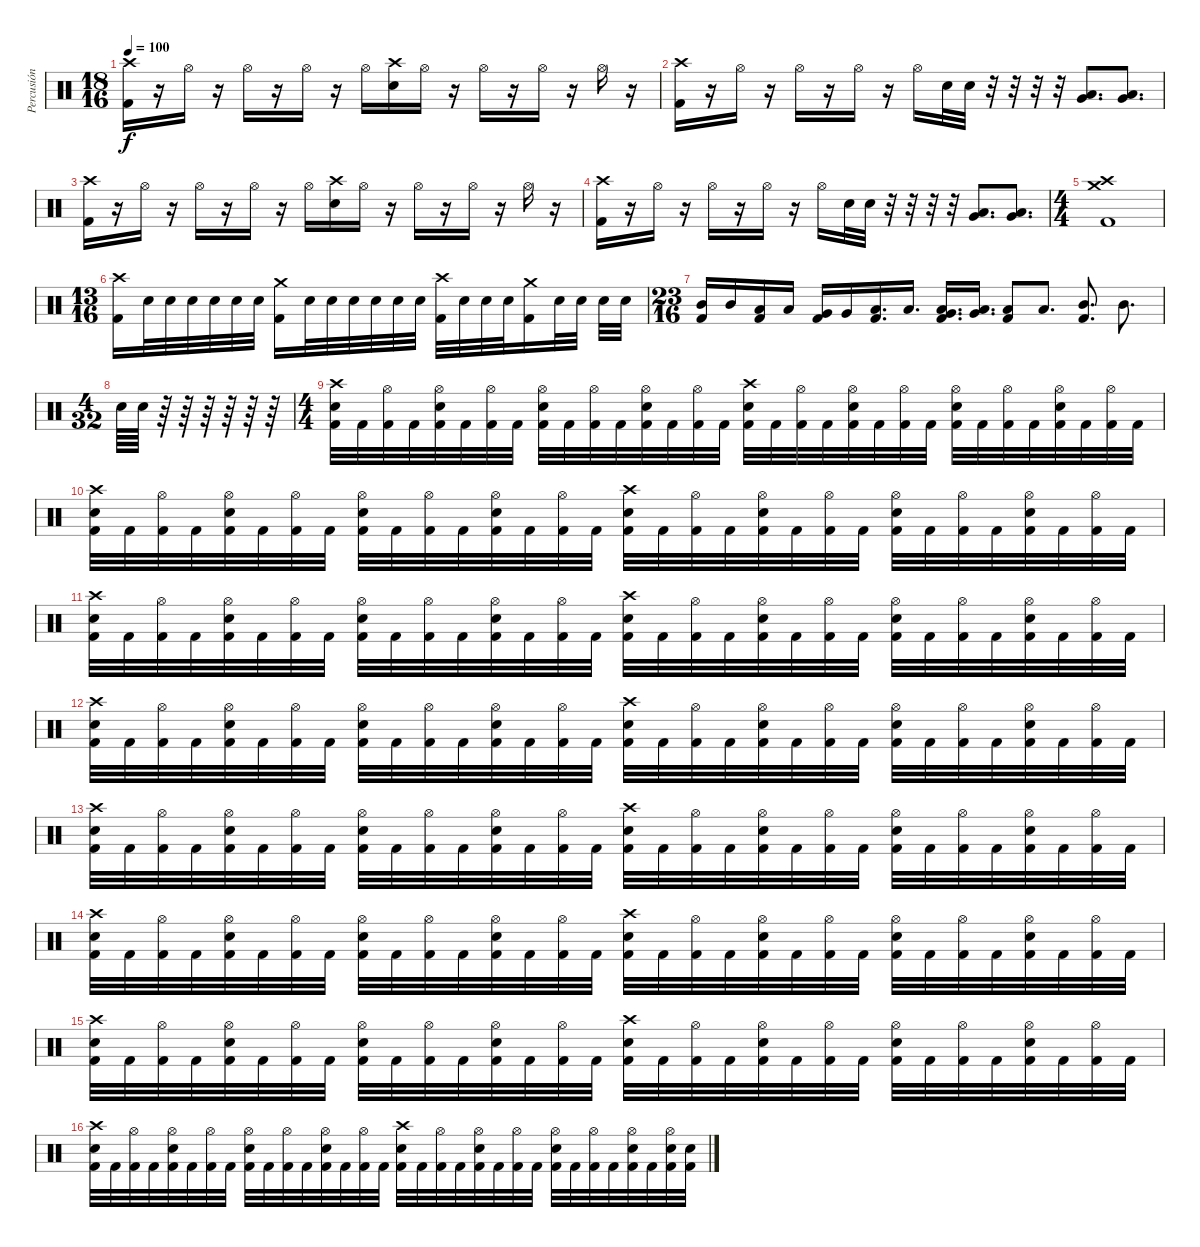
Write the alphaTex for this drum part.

\track ("Percusión" "Percusión") {instrument percussion}
\staff {score}
\articulation defaults
\ts (18 16)
\tempo 100
\clef neutral
\ks c
("Crash high (hit)" "Kick (hit) 2").16{dy f} r.16 "Hi-Hat (open)".16 r.16 "Hi-Hat (open)".16 r.16 "Hi-Hat (open)".16 r.16 "Hi-Hat (open)".16 ("Crash high (hit)" "Electric Snare (hit)").16 "Hi-Hat (open)".16 r.16 "Hi-Hat (open)".16 r.16 "Hi-Hat (open)".16 r.16 "Hi-Hat (open)".16 r.16 |
("Crash high (hit)" "Kick (hit) 2").16 r.16 "Hi-Hat (open)".16 r.16 "Hi-Hat (open)".16 r.16 "Hi-Hat (open)".16 r.16 "Hi-Hat (open)".16 "Electric Snare (hit)".32 "Electric Snare (hit)".32 r.32 r.32 r.32 r.32 ("Low Floor Tom (hit)" "Very Low Tom (hit)").8{d} ("Very Low Tom (hit)" "Low Floor Tom (hit)").8{d} |
("Crash high (hit)" "Kick (hit) 2").16 r.16 "Hi-Hat (open)".16 r.16 "Hi-Hat (open)".16 r.16 "Hi-Hat (open)".16 r.16 "Hi-Hat (open)".16 ("Crash high (hit)" "Electric Snare (hit)").16 "Hi-Hat (open)".16 r.16 "Hi-Hat (open)".16 r.16 "Hi-Hat (open)".16 r.16 "Hi-Hat (open)".16 r.16 |
("Crash high (hit)" "Kick (hit) 2").16 r.16 "Hi-Hat (open)".16 r.16 "Hi-Hat (open)".16 r.16 "Hi-Hat (open)".16 r.16 "Hi-Hat (open)".16 "Electric Snare (hit)".32 "Electric Snare (hit)".32 r.32 r.32 r.32 r.32 ("Low Floor Tom (hit)" "Very Low Tom (hit)").8{d} ("Very Low Tom (hit)" "Low Floor Tom (hit)").8{d} |
\ts (4 4)
("Crash medium (hit)" "Crash high (hit)" "Kick (hit) 2").1 |
\ts (13 16)
("Crash high (hit)" "Kick (hit) 2").16 "Electric Snare (hit)".32 "Electric Snare (hit)".32 "Electric Snare (hit)".32 "Electric Snare (hit)".32 "Electric Snare (hit)".32 "Electric Snare (hit)".32 ("Crash medium (hit)" "Kick (hit) 2").16 "Electric Snare (hit)".32 "Electric Snare (hit)".32 "Electric Snare (hit)".32 "Electric Snare (hit)".32 "Electric Snare (hit)".32 "Electric Snare (hit)".32 ("Crash high (hit)" "Kick (hit) 2").32 "Electric Snare (hit)".32 "Electric Snare (hit)".32 "Electric Snare (hit)".32 ("Crash medium (hit)" "Kick (hit) 2").16 "Electric Snare (hit)".32 "Electric Snare (hit)".32 "Electric Snare (hit)".32 "Electric Snare (hit)".32 |
\ts (23 16)
("Mid Tom (hit)" "Kick (hit) 2").16 "Mid Tom (hit)".16 ("Low Tom (hit)" "Kick (hit) 2").16 "Low Tom (hit)".16 ("Very Low Tom (hit)" "Kick (hit) 2").16 "Very Low Tom (hit)".16 ("Low Floor Tom (hit)" "Kick (hit) 2").16{d} "Low Floor Tom (hit)".16{d} ("Low Floor Tom (hit)" "Very Low Tom (hit)" "Kick (hit) 2").16{d} ("Low Floor Tom (hit)" "Very Low Tom (hit)").16{d} ("Low Tom (hit)" "Kick (hit) 2").8 "Low Tom (hit)".8{d} ("Mid Tom (hit)" "Kick (hit) 2").8{d} "Mid Tom (hit)".8{d} |
\ts (4 32)
"Electric Snare (hit)".64 "Electric Snare (hit)".64 r.64 r.64 r.64 r.64 r.64 r.64 |
\ts (4 4)
("Crash high (hit)" "Electric Snare (hit)" "Kick (hit) 2").32 "Kick (hit) 2".32 ("Hi-Hat (open)" "Kick (hit) 2").32 "Kick (hit) 2".32 ("Hi-Hat (open)" "Electric Snare (hit)" "Kick (hit) 2").32 "Kick (hit) 2".32 ("Hi-Hat (open)" "Kick (hit) 2").32 "Kick (hit) 2".32 ("Hi-Hat (open)" "Electric Snare (hit)" "Kick (hit) 2").32 "Kick (hit) 2".32 ("Hi-Hat (open)" "Kick (hit) 2").32 "Kick (hit) 2".32 ("Hi-Hat (open)" "Electric Snare (hit)" "Kick (hit) 2").32 "Kick (hit) 2".32 ("Hi-Hat (open)" "Kick (hit) 2").32 "Kick (hit) 2".32 ("Crash high (hit)" "Electric Snare (hit)" "Kick (hit) 2").32 "Kick (hit) 2".32 ("Hi-Hat (open)" "Kick (hit) 2").32 "Kick (hit) 2".32 ("Hi-Hat (open)" "Electric Snare (hit)" "Kick (hit) 2").32 "Kick (hit) 2".32 ("Hi-Hat (open)" "Kick (hit) 2").32 "Kick (hit) 2".32 ("Hi-Hat (open)" "Electric Snare (hit)" "Kick (hit) 2").32 "Kick (hit) 2".32 ("Hi-Hat (open)" "Kick (hit) 2").32 "Kick (hit) 2".32 ("Hi-Hat (open)" "Electric Snare (hit)" "Kick (hit) 2").32 "Kick (hit) 2".32 ("Hi-Hat (open)" "Kick (hit) 2").32 "Kick (hit) 2".32 |
("Crash high (hit)" "Electric Snare (hit)" "Kick (hit) 2").32 "Kick (hit) 2".32 ("Hi-Hat (open)" "Kick (hit) 2").32 "Kick (hit) 2".32 ("Hi-Hat (open)" "Electric Snare (hit)" "Kick (hit) 2").32 "Kick (hit) 2".32 ("Hi-Hat (open)" "Kick (hit) 2").32 "Kick (hit) 2".32 ("Hi-Hat (open)" "Electric Snare (hit)" "Kick (hit) 2").32 "Kick (hit) 2".32 ("Hi-Hat (open)" "Kick (hit) 2").32 "Kick (hit) 2".32 ("Hi-Hat (open)" "Electric Snare (hit)" "Kick (hit) 2").32 "Kick (hit) 2".32 ("Hi-Hat (open)" "Kick (hit) 2").32 "Kick (hit) 2".32 ("Crash high (hit)" "Electric Snare (hit)" "Kick (hit) 2").32 "Kick (hit) 2".32 ("Hi-Hat (open)" "Kick (hit) 2").32 "Kick (hit) 2".32 ("Hi-Hat (open)" "Electric Snare (hit)" "Kick (hit) 2").32 "Kick (hit) 2".32 ("Hi-Hat (open)" "Kick (hit) 2").32 "Kick (hit) 2".32 ("Hi-Hat (open)" "Electric Snare (hit)" "Kick (hit) 2").32 "Kick (hit) 2".32 ("Hi-Hat (open)" "Kick (hit) 2").32 "Kick (hit) 2".32 ("Hi-Hat (open)" "Electric Snare (hit)" "Kick (hit) 2").32 "Kick (hit) 2".32 ("Hi-Hat (open)" "Kick (hit) 2").32 "Kick (hit) 2".32 |
("Crash high (hit)" "Electric Snare (hit)" "Kick (hit) 2").32 "Kick (hit) 2".32 ("Hi-Hat (open)" "Kick (hit) 2").32 "Kick (hit) 2".32 ("Hi-Hat (open)" "Electric Snare (hit)" "Kick (hit) 2").32 "Kick (hit) 2".32 ("Hi-Hat (open)" "Kick (hit) 2").32 "Kick (hit) 2".32 ("Hi-Hat (open)" "Electric Snare (hit)" "Kick (hit) 2").32 "Kick (hit) 2".32 ("Hi-Hat (open)" "Kick (hit) 2").32 "Kick (hit) 2".32 ("Hi-Hat (open)" "Electric Snare (hit)" "Kick (hit) 2").32 "Kick (hit) 2".32 ("Hi-Hat (open)" "Kick (hit) 2").32 "Kick (hit) 2".32 ("Crash high (hit)" "Electric Snare (hit)" "Kick (hit) 2").32 "Kick (hit) 2".32 ("Hi-Hat (open)" "Kick (hit) 2").32 "Kick (hit) 2".32 ("Hi-Hat (open)" "Electric Snare (hit)" "Kick (hit) 2").32 "Kick (hit) 2".32 ("Hi-Hat (open)" "Kick (hit) 2").32 "Kick (hit) 2".32 ("Hi-Hat (open)" "Electric Snare (hit)" "Kick (hit) 2").32 "Kick (hit) 2".32 ("Hi-Hat (open)" "Kick (hit) 2").32 "Kick (hit) 2".32 ("Hi-Hat (open)" "Electric Snare (hit)" "Kick (hit) 2").32 "Kick (hit) 2".32 ("Hi-Hat (open)" "Kick (hit) 2").32 "Kick (hit) 2".32 |
("Crash high (hit)" "Electric Snare (hit)" "Kick (hit) 2").32 "Kick (hit) 2".32 ("Hi-Hat (open)" "Kick (hit) 2").32 "Kick (hit) 2".32 ("Hi-Hat (open)" "Electric Snare (hit)" "Kick (hit) 2").32 "Kick (hit) 2".32 ("Hi-Hat (open)" "Kick (hit) 2").32 "Kick (hit) 2".32 ("Hi-Hat (open)" "Electric Snare (hit)" "Kick (hit) 2").32 "Kick (hit) 2".32 ("Hi-Hat (open)" "Kick (hit) 2").32 "Kick (hit) 2".32 ("Hi-Hat (open)" "Electric Snare (hit)" "Kick (hit) 2").32 "Kick (hit) 2".32 ("Hi-Hat (open)" "Kick (hit) 2").32 "Kick (hit) 2".32 ("Crash high (hit)" "Electric Snare (hit)" "Kick (hit) 2").32 "Kick (hit) 2".32 ("Hi-Hat (open)" "Kick (hit) 2").32 "Kick (hit) 2".32 ("Hi-Hat (open)" "Electric Snare (hit)" "Kick (hit) 2").32 "Kick (hit) 2".32 ("Hi-Hat (open)" "Kick (hit) 2").32 "Kick (hit) 2".32 ("Hi-Hat (open)" "Electric Snare (hit)" "Kick (hit) 2").32 "Kick (hit) 2".32 ("Hi-Hat (open)" "Kick (hit) 2").32 "Kick (hit) 2".32 ("Hi-Hat (open)" "Electric Snare (hit)" "Kick (hit) 2").32 "Kick (hit) 2".32 ("Hi-Hat (open)" "Kick (hit) 2").32 "Kick (hit) 2".32 |
("Crash high (hit)" "Electric Snare (hit)" "Kick (hit) 2").32 "Kick (hit) 2".32 ("Hi-Hat (open)" "Kick (hit) 2").32 "Kick (hit) 2".32 ("Hi-Hat (open)" "Electric Snare (hit)" "Kick (hit) 2").32 "Kick (hit) 2".32 ("Hi-Hat (open)" "Kick (hit) 2").32 "Kick (hit) 2".32 ("Hi-Hat (open)" "Electric Snare (hit)" "Kick (hit) 2").32 "Kick (hit) 2".32 ("Hi-Hat (open)" "Kick (hit) 2").32 "Kick (hit) 2".32 ("Hi-Hat (open)" "Electric Snare (hit)" "Kick (hit) 2").32 "Kick (hit) 2".32 ("Hi-Hat (open)" "Kick (hit) 2").32 "Kick (hit) 2".32 ("Crash high (hit)" "Electric Snare (hit)" "Kick (hit) 2").32 "Kick (hit) 2".32 ("Hi-Hat (open)" "Kick (hit) 2").32 "Kick (hit) 2".32 ("Hi-Hat (open)" "Electric Snare (hit)" "Kick (hit) 2").32 "Kick (hit) 2".32 ("Hi-Hat (open)" "Kick (hit) 2").32 "Kick (hit) 2".32 ("Hi-Hat (open)" "Electric Snare (hit)" "Kick (hit) 2").32 "Kick (hit) 2".32 ("Hi-Hat (open)" "Kick (hit) 2").32 "Kick (hit) 2".32 ("Hi-Hat (open)" "Electric Snare (hit)" "Kick (hit) 2").32 "Kick (hit) 2".32 ("Hi-Hat (open)" "Kick (hit) 2").32 "Kick (hit) 2".32 |
("Crash high (hit)" "Electric Snare (hit)" "Kick (hit) 2").32 "Kick (hit) 2".32 ("Hi-Hat (open)" "Kick (hit) 2").32 "Kick (hit) 2".32 ("Hi-Hat (open)" "Electric Snare (hit)" "Kick (hit) 2").32 "Kick (hit) 2".32 ("Hi-Hat (open)" "Kick (hit) 2").32 "Kick (hit) 2".32 ("Hi-Hat (open)" "Electric Snare (hit)" "Kick (hit) 2").32 "Kick (hit) 2".32 ("Hi-Hat (open)" "Kick (hit) 2").32 "Kick (hit) 2".32 ("Hi-Hat (open)" "Electric Snare (hit)" "Kick (hit) 2").32 "Kick (hit) 2".32 ("Hi-Hat (open)" "Kick (hit) 2").32 "Kick (hit) 2".32 ("Crash high (hit)" "Electric Snare (hit)" "Kick (hit) 2").32 "Kick (hit) 2".32 ("Hi-Hat (open)" "Kick (hit) 2").32 "Kick (hit) 2".32 ("Hi-Hat (open)" "Electric Snare (hit)" "Kick (hit) 2").32 "Kick (hit) 2".32 ("Hi-Hat (open)" "Kick (hit) 2").32 "Kick (hit) 2".32 ("Hi-Hat (open)" "Electric Snare (hit)" "Kick (hit) 2").32 "Kick (hit) 2".32 ("Hi-Hat (open)" "Kick (hit) 2").32 "Kick (hit) 2".32 ("Hi-Hat (open)" "Electric Snare (hit)" "Kick (hit) 2").32 "Kick (hit) 2".32 ("Hi-Hat (open)" "Kick (hit) 2").32 "Kick (hit) 2".32 |
("Crash high (hit)" "Electric Snare (hit)" "Kick (hit) 2").32 "Kick (hit) 2".32 ("Hi-Hat (open)" "Kick (hit) 2").32 "Kick (hit) 2".32 ("Hi-Hat (open)" "Electric Snare (hit)" "Kick (hit) 2").32 "Kick (hit) 2".32 ("Hi-Hat (open)" "Kick (hit) 2").32 "Kick (hit) 2".32 ("Hi-Hat (open)" "Electric Snare (hit)" "Kick (hit) 2").32 "Kick (hit) 2".32 ("Hi-Hat (open)" "Kick (hit) 2").32 "Kick (hit) 2".32 ("Hi-Hat (open)" "Electric Snare (hit)" "Kick (hit) 2").32 "Kick (hit) 2".32 ("Hi-Hat (open)" "Kick (hit) 2").32 "Kick (hit) 2".32 ("Crash high (hit)" "Electric Snare (hit)" "Kick (hit) 2").32 "Kick (hit) 2".32 ("Hi-Hat (open)" "Kick (hit) 2").32 "Kick (hit) 2".32 ("Hi-Hat (open)" "Electric Snare (hit)" "Kick (hit) 2").32 "Kick (hit) 2".32 ("Hi-Hat (open)" "Kick (hit) 2").32 "Kick (hit) 2".32 ("Hi-Hat (open)" "Electric Snare (hit)" "Kick (hit) 2").32 "Kick (hit) 2".32 ("Hi-Hat (open)" "Kick (hit) 2").32 "Kick (hit) 2".32 ("Hi-Hat (open)" "Electric Snare (hit)" "Kick (hit) 2").32 "Kick (hit) 2".32 ("Hi-Hat (open)" "Kick (hit) 2").32 "Kick (hit) 2".32 |
("Crash high (hit)" "Electric Snare (hit)" "Kick (hit) 2").32 "Kick (hit) 2".32 ("Hi-Hat (open)" "Kick (hit) 2").32 "Kick (hit) 2".32 ("Hi-Hat (open)" "Electric Snare (hit)" "Kick (hit) 2").32 "Kick (hit) 2".32 ("Hi-Hat (open)" "Kick (hit) 2").32 "Kick (hit) 2".32 ("Hi-Hat (open)" "Electric Snare (hit)" "Kick (hit) 2").32 "Kick (hit) 2".32 ("Hi-Hat (open)" "Kick (hit) 2").32 "Kick (hit) 2".32 ("Hi-Hat (open)" "Electric Snare (hit)" "Kick (hit) 2").32 "Kick (hit) 2".32 ("Hi-Hat (open)" "Kick (hit) 2").32 "Kick (hit) 2".32 ("Crash high (hit)" "Electric Snare (hit)" "Kick (hit) 2").32 "Kick (hit) 2".32 ("Hi-Hat (open)" "Kick (hit) 2").32 "Kick (hit) 2".32 ("Hi-Hat (open)" "Electric Snare (hit)" "Kick (hit) 2").32 "Kick (hit) 2".32 ("Hi-Hat (open)" "Kick (hit) 2").32 "Kick (hit) 2".32 ("Hi-Hat (open)" "Electric Snare (hit)" "Kick (hit) 2").32 "Kick (hit) 2".32 ("Hi-Hat (open)" "Kick (hit) 2").32 "Kick (hit) 2".32 ("Hi-Hat (open)" "Electric Snare (hit)" "Kick (hit) 2").32 "Kick (hit) 2".32 ("Hi-Hat (open)" "Electric Snare (hit)" "Kick (hit) 2").32 ("Electric Snare (hit)" "Kick (hit) 2").32
